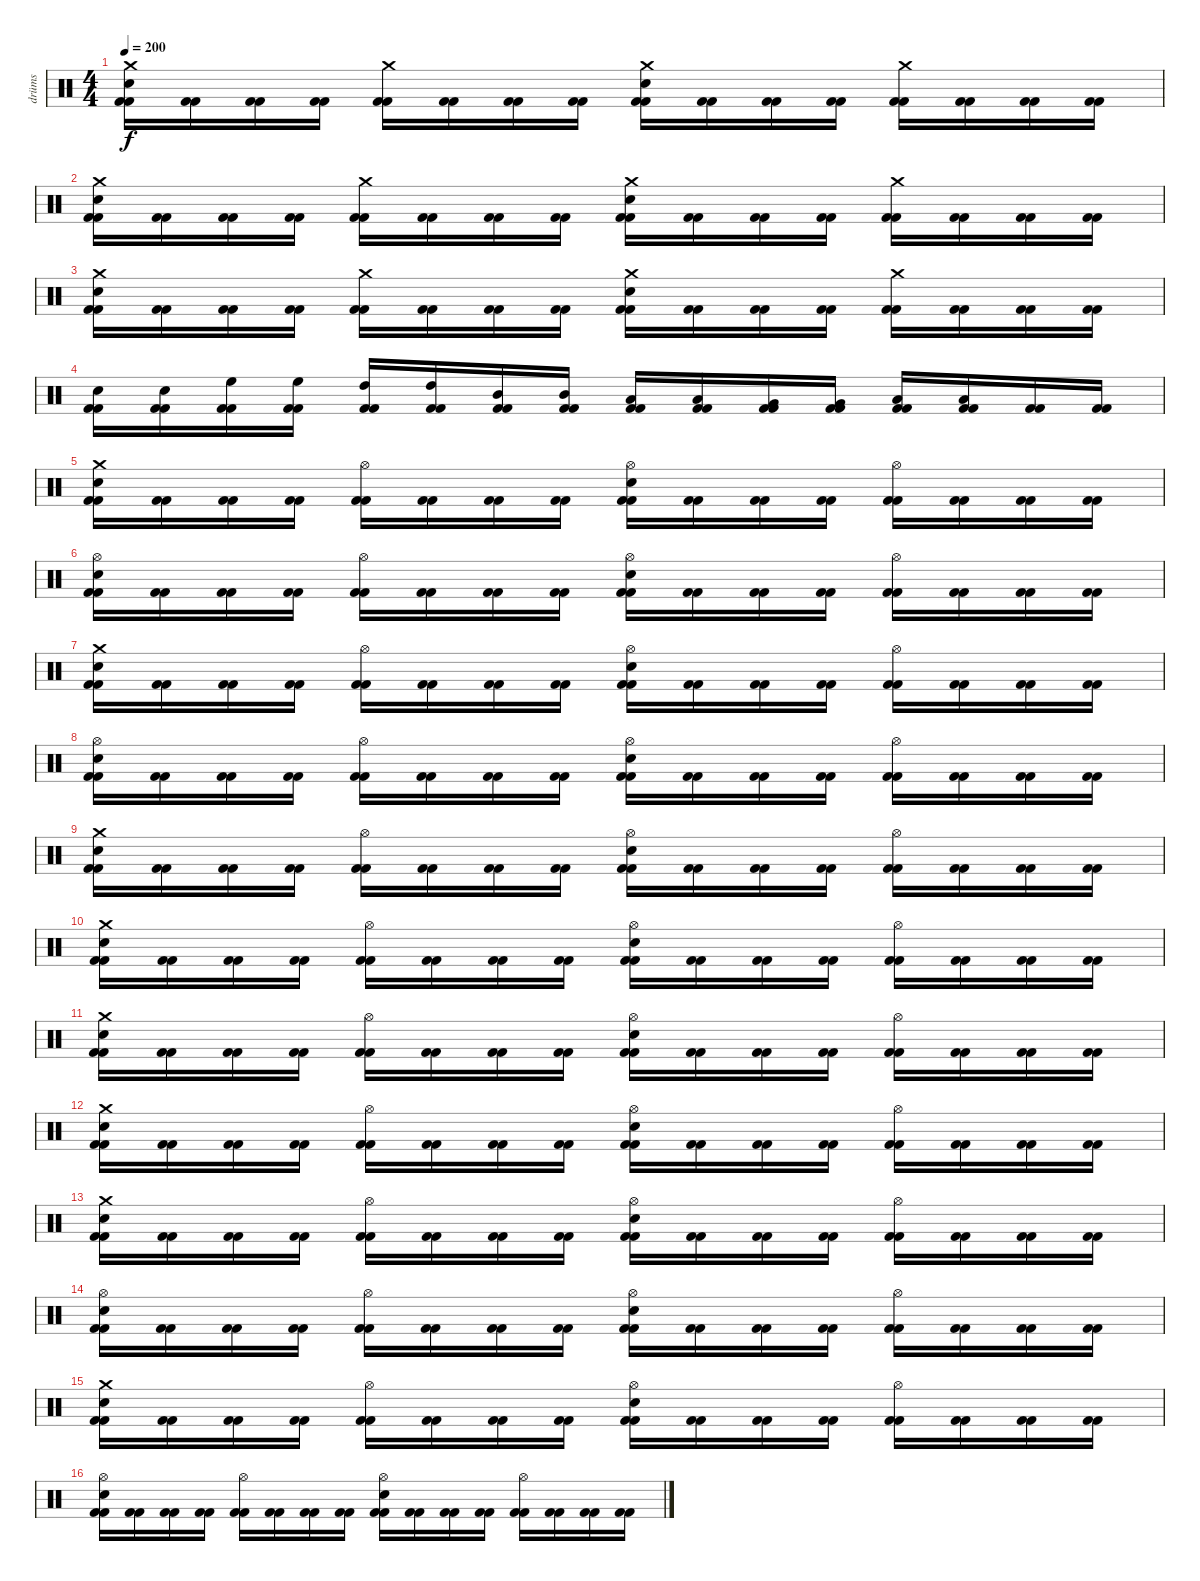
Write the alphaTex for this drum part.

\track ("drüms" "drüms") {instrument percussion}
\staff {score}
\articulation defaults
\ts (4 4)
\tempo 200
\clef neutral
\ks c
("Crash medium (hit)" "Snare (hit) 2" "Kick (hit) 2" "Kick (hit) 2").16{dy f} ("Kick (hit) 2" "Kick (hit) 2").16 ("Kick (hit) 2" "Kick (hit) 2").16 ("Kick (hit) 2" "Kick (hit) 2").16 ("Crash medium (hit)" "Kick (hit) 2" "Kick (hit) 2").16 ("Kick (hit) 2" "Kick (hit) 2").16 ("Kick (hit) 2" "Kick (hit) 2").16 ("Kick (hit) 2" "Kick (hit) 2").16 ("Crash medium (hit)" "Snare (hit) 2" "Kick (hit) 2" "Kick (hit) 2").16 ("Kick (hit) 2" "Kick (hit) 2").16 ("Kick (hit) 2" "Kick (hit) 2").16 ("Kick (hit) 2" "Kick (hit) 2").16 ("Crash medium (hit)" "Kick (hit) 2" "Kick (hit) 2").16 ("Kick (hit) 2" "Kick (hit) 2").16 ("Kick (hit) 2" "Kick (hit) 2").16 ("Kick (hit) 2" "Kick (hit) 2").16 |
("Crash medium (hit)" "Snare (hit) 2" "Kick (hit) 2" "Kick (hit) 2").16 ("Kick (hit) 2" "Kick (hit) 2").16 ("Kick (hit) 2" "Kick (hit) 2").16 ("Kick (hit) 2" "Kick (hit) 2").16 ("Crash medium (hit)" "Kick (hit) 2" "Kick (hit) 2").16 ("Kick (hit) 2" "Kick (hit) 2").16 ("Kick (hit) 2" "Kick (hit) 2").16 ("Kick (hit) 2" "Kick (hit) 2").16 ("Crash medium (hit)" "Snare (hit) 2" "Kick (hit) 2" "Kick (hit) 2").16 ("Kick (hit) 2" "Kick (hit) 2").16 ("Kick (hit) 2" "Kick (hit) 2").16 ("Kick (hit) 2" "Kick (hit) 2").16 ("Crash medium (hit)" "Kick (hit) 2" "Kick (hit) 2").16 ("Kick (hit) 2" "Kick (hit) 2").16 ("Kick (hit) 2" "Kick (hit) 2").16 ("Kick (hit) 2" "Kick (hit) 2").16 |
("Crash medium (hit)" "Snare (hit) 2" "Kick (hit) 2" "Kick (hit) 2").16 ("Kick (hit) 2" "Kick (hit) 2").16 ("Kick (hit) 2" "Kick (hit) 2").16 ("Kick (hit) 2" "Kick (hit) 2").16 ("Crash medium (hit)" "Kick (hit) 2" "Kick (hit) 2").16 ("Kick (hit) 2" "Kick (hit) 2").16 ("Kick (hit) 2" "Kick (hit) 2").16 ("Kick (hit) 2" "Kick (hit) 2").16 ("Crash medium (hit)" "Snare (hit) 2" "Kick (hit) 2" "Kick (hit) 2").16 ("Kick (hit) 2" "Kick (hit) 2").16 ("Kick (hit) 2" "Kick (hit) 2").16 ("Kick (hit) 2" "Kick (hit) 2").16 ("Crash medium (hit)" "Kick (hit) 2" "Kick (hit) 2").16 ("Kick (hit) 2" "Kick (hit) 2").16 ("Kick (hit) 2" "Kick (hit) 2").16 ("Kick (hit) 2" "Kick (hit) 2").16 |
("Snare (hit) 2" "Kick (hit) 2" "Kick (hit) 2").16 ("Snare (hit) 2" "Kick (hit) 2" "Kick (hit) 2").16 ("High Floor Tom (hit)" "Kick (hit) 2" "Kick (hit) 2").16 ("High Floor Tom (hit)" "Kick (hit) 2" "Kick (hit) 2").16 ("High Tom (hit)" "Kick (hit) 2" "Kick (hit) 2").16 ("High Tom (hit)" "Kick (hit) 2" "Kick (hit) 2").16 ("Mid Tom (hit)" "Kick (hit) 2" "Kick (hit) 2").16 ("Mid Tom (hit)" "Kick (hit) 2" "Kick (hit) 2").16 ("Low Tom (hit)" "Kick (hit) 2" "Kick (hit) 2").16 ("Low Tom (hit)" "Kick (hit) 2" "Kick (hit) 2").16 ("Very Low Tom (hit)" "Kick (hit) 2" "Kick (hit) 2").16 ("Very Low Tom (hit)" "Kick (hit) 2" "Kick (hit) 2").16 ("Low Floor Tom (hit)" "Kick (hit) 2" "Kick (hit) 2").16 ("Low Floor Tom (hit)" "Kick (hit) 2" "Kick (hit) 2").16 ("Kick (hit) 2" "Kick (hit) 2").16 ("Kick (hit) 2" "Kick (hit) 2").16 |
("Crash medium (hit)" "Snare (hit) 2" "Kick (hit) 2" "Kick (hit) 2").16 ("Kick (hit) 2" "Kick (hit) 2").16 ("Kick (hit) 2" "Kick (hit) 2").16 ("Kick (hit) 2" "Kick (hit) 2").16 ("Hi-Hat (open)" "Kick (hit) 2" "Kick (hit) 2").16 ("Kick (hit) 2" "Kick (hit) 2").16 ("Kick (hit) 2" "Kick (hit) 2").16 ("Kick (hit) 2" "Kick (hit) 2").16 ("Hi-Hat (open)" "Snare (hit) 2" "Kick (hit) 2" "Kick (hit) 2").16 ("Kick (hit) 2" "Kick (hit) 2").16 ("Kick (hit) 2" "Kick (hit) 2").16 ("Kick (hit) 2" "Kick (hit) 2").16 ("Hi-Hat (open)" "Kick (hit) 2" "Kick (hit) 2").16 ("Kick (hit) 2" "Kick (hit) 2").16 ("Kick (hit) 2" "Kick (hit) 2").16 ("Kick (hit) 2" "Kick (hit) 2").16 |
("Hi-Hat (open)" "Snare (hit) 2" "Kick (hit) 2" "Kick (hit) 2").16 ("Kick (hit) 2" "Kick (hit) 2").16 ("Kick (hit) 2" "Kick (hit) 2").16 ("Kick (hit) 2" "Kick (hit) 2").16 ("Hi-Hat (open)" "Kick (hit) 2" "Kick (hit) 2").16 ("Kick (hit) 2" "Kick (hit) 2").16 ("Kick (hit) 2" "Kick (hit) 2").16 ("Kick (hit) 2" "Kick (hit) 2").16 ("Hi-Hat (open)" "Snare (hit) 2" "Kick (hit) 2" "Kick (hit) 2").16 ("Kick (hit) 2" "Kick (hit) 2").16 ("Kick (hit) 2" "Kick (hit) 2").16 ("Kick (hit) 2" "Kick (hit) 2").16 ("Hi-Hat (open)" "Kick (hit) 2" "Kick (hit) 2").16 ("Kick (hit) 2" "Kick (hit) 2").16 ("Kick (hit) 2" "Kick (hit) 2").16 ("Kick (hit) 2" "Kick (hit) 2").16 |
("Crash medium (hit)" "Snare (hit) 2" "Kick (hit) 2" "Kick (hit) 2").16 ("Kick (hit) 2" "Kick (hit) 2").16 ("Kick (hit) 2" "Kick (hit) 2").16 ("Kick (hit) 2" "Kick (hit) 2").16 ("Hi-Hat (open)" "Kick (hit) 2" "Kick (hit) 2").16 ("Kick (hit) 2" "Kick (hit) 2").16 ("Kick (hit) 2" "Kick (hit) 2").16 ("Kick (hit) 2" "Kick (hit) 2").16 ("Hi-Hat (open)" "Snare (hit) 2" "Kick (hit) 2" "Kick (hit) 2").16 ("Kick (hit) 2" "Kick (hit) 2").16 ("Kick (hit) 2" "Kick (hit) 2").16 ("Kick (hit) 2" "Kick (hit) 2").16 ("Hi-Hat (open)" "Kick (hit) 2" "Kick (hit) 2").16 ("Kick (hit) 2" "Kick (hit) 2").16 ("Kick (hit) 2" "Kick (hit) 2").16 ("Kick (hit) 2" "Kick (hit) 2").16 |
("Hi-Hat (open)" "Snare (hit) 2" "Kick (hit) 2" "Kick (hit) 2").16 ("Kick (hit) 2" "Kick (hit) 2").16 ("Kick (hit) 2" "Kick (hit) 2").16 ("Kick (hit) 2" "Kick (hit) 2").16 ("Hi-Hat (open)" "Kick (hit) 2" "Kick (hit) 2").16 ("Kick (hit) 2" "Kick (hit) 2").16 ("Kick (hit) 2" "Kick (hit) 2").16 ("Kick (hit) 2" "Kick (hit) 2").16 ("Hi-Hat (open)" "Snare (hit) 2" "Kick (hit) 2" "Kick (hit) 2").16 ("Kick (hit) 2" "Kick (hit) 2").16 ("Kick (hit) 2" "Kick (hit) 2").16 ("Kick (hit) 2" "Kick (hit) 2").16 ("Hi-Hat (open)" "Kick (hit) 2" "Kick (hit) 2").16 ("Kick (hit) 2" "Kick (hit) 2").16 ("Kick (hit) 2" "Kick (hit) 2").16 ("Kick (hit) 2" "Kick (hit) 2").16 |
("Crash medium (hit)" "Snare (hit) 2" "Kick (hit) 2" "Kick (hit) 2").16 ("Kick (hit) 2" "Kick (hit) 2").16 ("Kick (hit) 2" "Kick (hit) 2").16 ("Kick (hit) 2" "Kick (hit) 2").16 ("Hi-Hat (open)" "Kick (hit) 2" "Kick (hit) 2").16 ("Kick (hit) 2" "Kick (hit) 2").16 ("Kick (hit) 2" "Kick (hit) 2").16 ("Kick (hit) 2" "Kick (hit) 2").16 ("Hi-Hat (open)" "Snare (hit) 2" "Kick (hit) 2" "Kick (hit) 2").16 ("Kick (hit) 2" "Kick (hit) 2").16 ("Kick (hit) 2" "Kick (hit) 2").16 ("Kick (hit) 2" "Kick (hit) 2").16 ("Hi-Hat (open)" "Kick (hit) 2" "Kick (hit) 2").16 ("Kick (hit) 2" "Kick (hit) 2").16 ("Kick (hit) 2" "Kick (hit) 2").16 ("Kick (hit) 2" "Kick (hit) 2").16 |
("Crash medium (hit)" "Snare (hit) 2" "Kick (hit) 2" "Kick (hit) 2").16 ("Kick (hit) 2" "Kick (hit) 2").16 ("Kick (hit) 2" "Kick (hit) 2").16 ("Kick (hit) 2" "Kick (hit) 2").16 ("Hi-Hat (open)" "Kick (hit) 2" "Kick (hit) 2").16 ("Kick (hit) 2" "Kick (hit) 2").16 ("Kick (hit) 2" "Kick (hit) 2").16 ("Kick (hit) 2" "Kick (hit) 2").16 ("Hi-Hat (open)" "Snare (hit) 2" "Kick (hit) 2" "Kick (hit) 2").16 ("Kick (hit) 2" "Kick (hit) 2").16 ("Kick (hit) 2" "Kick (hit) 2").16 ("Kick (hit) 2" "Kick (hit) 2").16 ("Hi-Hat (open)" "Kick (hit) 2" "Kick (hit) 2").16 ("Kick (hit) 2" "Kick (hit) 2").16 ("Kick (hit) 2" "Kick (hit) 2").16 ("Kick (hit) 2" "Kick (hit) 2").16 |
("Crash medium (hit)" "Snare (hit) 2" "Kick (hit) 2" "Kick (hit) 2").16 ("Kick (hit) 2" "Kick (hit) 2").16 ("Kick (hit) 2" "Kick (hit) 2").16 ("Kick (hit) 2" "Kick (hit) 2").16 ("Hi-Hat (open)" "Kick (hit) 2" "Kick (hit) 2").16 ("Kick (hit) 2" "Kick (hit) 2").16 ("Kick (hit) 2" "Kick (hit) 2").16 ("Kick (hit) 2" "Kick (hit) 2").16 ("Hi-Hat (open)" "Snare (hit) 2" "Kick (hit) 2" "Kick (hit) 2").16 ("Kick (hit) 2" "Kick (hit) 2").16 ("Kick (hit) 2" "Kick (hit) 2").16 ("Kick (hit) 2" "Kick (hit) 2").16 ("Hi-Hat (open)" "Kick (hit) 2" "Kick (hit) 2").16 ("Kick (hit) 2" "Kick (hit) 2").16 ("Kick (hit) 2" "Kick (hit) 2").16 ("Kick (hit) 2" "Kick (hit) 2").16 |
("Crash medium (hit)" "Snare (hit) 2" "Kick (hit) 2" "Kick (hit) 2").16 ("Kick (hit) 2" "Kick (hit) 2").16 ("Kick (hit) 2" "Kick (hit) 2").16 ("Kick (hit) 2" "Kick (hit) 2").16 ("Hi-Hat (open)" "Kick (hit) 2" "Kick (hit) 2").16 ("Kick (hit) 2" "Kick (hit) 2").16 ("Kick (hit) 2" "Kick (hit) 2").16 ("Kick (hit) 2" "Kick (hit) 2").16 ("Hi-Hat (open)" "Snare (hit) 2" "Kick (hit) 2" "Kick (hit) 2").16 ("Kick (hit) 2" "Kick (hit) 2").16 ("Kick (hit) 2" "Kick (hit) 2").16 ("Kick (hit) 2" "Kick (hit) 2").16 ("Hi-Hat (open)" "Kick (hit) 2" "Kick (hit) 2").16 ("Kick (hit) 2" "Kick (hit) 2").16 ("Kick (hit) 2" "Kick (hit) 2").16 ("Kick (hit) 2" "Kick (hit) 2").16 |
("Crash medium (hit)" "Snare (hit) 2" "Kick (hit) 2" "Kick (hit) 2").16 ("Kick (hit) 2" "Kick (hit) 2").16 ("Kick (hit) 2" "Kick (hit) 2").16 ("Kick (hit) 2" "Kick (hit) 2").16 ("Hi-Hat (open)" "Kick (hit) 2" "Kick (hit) 2").16 ("Kick (hit) 2" "Kick (hit) 2").16 ("Kick (hit) 2" "Kick (hit) 2").16 ("Kick (hit) 2" "Kick (hit) 2").16 ("Hi-Hat (open)" "Snare (hit) 2" "Kick (hit) 2" "Kick (hit) 2").16 ("Kick (hit) 2" "Kick (hit) 2").16 ("Kick (hit) 2" "Kick (hit) 2").16 ("Kick (hit) 2" "Kick (hit) 2").16 ("Hi-Hat (open)" "Kick (hit) 2" "Kick (hit) 2").16 ("Kick (hit) 2" "Kick (hit) 2").16 ("Kick (hit) 2" "Kick (hit) 2").16 ("Kick (hit) 2" "Kick (hit) 2").16 |
("Hi-Hat (open)" "Snare (hit) 2" "Kick (hit) 2" "Kick (hit) 2").16 ("Kick (hit) 2" "Kick (hit) 2").16 ("Kick (hit) 2" "Kick (hit) 2").16 ("Kick (hit) 2" "Kick (hit) 2").16 ("Hi-Hat (open)" "Kick (hit) 2" "Kick (hit) 2").16 ("Kick (hit) 2" "Kick (hit) 2").16 ("Kick (hit) 2" "Kick (hit) 2").16 ("Kick (hit) 2" "Kick (hit) 2").16 ("Hi-Hat (open)" "Snare (hit) 2" "Kick (hit) 2" "Kick (hit) 2").16 ("Kick (hit) 2" "Kick (hit) 2").16 ("Kick (hit) 2" "Kick (hit) 2").16 ("Kick (hit) 2" "Kick (hit) 2").16 ("Hi-Hat (open)" "Kick (hit) 2" "Kick (hit) 2").16 ("Kick (hit) 2" "Kick (hit) 2").16 ("Kick (hit) 2" "Kick (hit) 2").16 ("Kick (hit) 2" "Kick (hit) 2").16 |
("Crash medium (hit)" "Snare (hit) 2" "Kick (hit) 2" "Kick (hit) 2").16 ("Kick (hit) 2" "Kick (hit) 2").16 ("Kick (hit) 2" "Kick (hit) 2").16 ("Kick (hit) 2" "Kick (hit) 2").16 ("Hi-Hat (open)" "Kick (hit) 2" "Kick (hit) 2").16 ("Kick (hit) 2" "Kick (hit) 2").16 ("Kick (hit) 2" "Kick (hit) 2").16 ("Kick (hit) 2" "Kick (hit) 2").16 ("Hi-Hat (open)" "Snare (hit) 2" "Kick (hit) 2" "Kick (hit) 2").16 ("Kick (hit) 2" "Kick (hit) 2").16 ("Kick (hit) 2" "Kick (hit) 2").16 ("Kick (hit) 2" "Kick (hit) 2").16 ("Hi-Hat (open)" "Kick (hit) 2" "Kick (hit) 2").16 ("Kick (hit) 2" "Kick (hit) 2").16 ("Kick (hit) 2" "Kick (hit) 2").16 ("Kick (hit) 2" "Kick (hit) 2").16 |
("Hi-Hat (open)" "Snare (hit) 2" "Kick (hit) 2" "Kick (hit) 2").16 ("Kick (hit) 2" "Kick (hit) 2").16 ("Kick (hit) 2" "Kick (hit) 2").16 ("Kick (hit) 2" "Kick (hit) 2").16 ("Hi-Hat (open)" "Kick (hit) 2" "Kick (hit) 2").16 ("Kick (hit) 2" "Kick (hit) 2").16 ("Kick (hit) 2" "Kick (hit) 2").16 ("Kick (hit) 2" "Kick (hit) 2").16 ("Hi-Hat (open)" "Snare (hit) 2" "Kick (hit) 2" "Kick (hit) 2").16 ("Kick (hit) 2" "Kick (hit) 2").16 ("Kick (hit) 2" "Kick (hit) 2").16 ("Kick (hit) 2" "Kick (hit) 2").16 ("Hi-Hat (open)" "Kick (hit) 2" "Kick (hit) 2").16 ("Kick (hit) 2" "Kick (hit) 2").16 ("Kick (hit) 2" "Kick (hit) 2").16 ("Kick (hit) 2" "Kick (hit) 2").16
